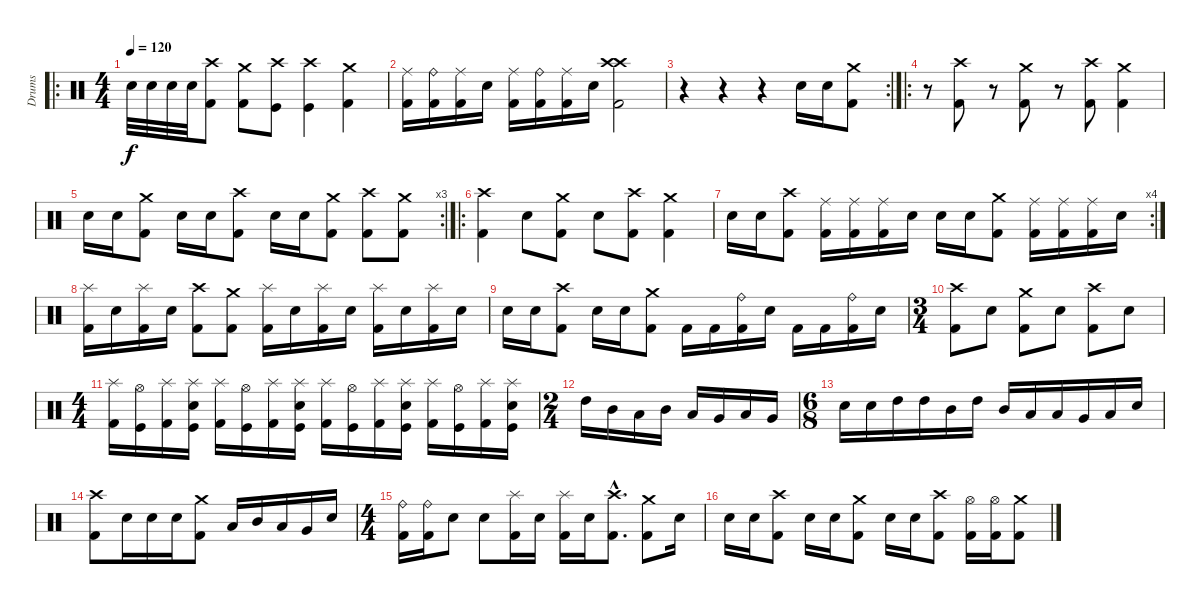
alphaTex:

\track ("Drums" "Drums") {instrument percussion}
\staff {score}
\articulation defaults
\ro
\ts (4 4)
\tempo 120
\clef neutral
\ks c "Electric Snare (hit)".32{dy f} "Electric Snare (hit)".32 "Electric Snare (hit)".32 "Electric Snare (hit)".32
("Crash high (hit)" "Kick (hit) 2").8 ("Crash medium (hit)" "Kick (hit) 2").8 ("Crash high (hit)" "Kick (hit)").8 ("Crash high (hit)" "Kick (hit)").4 ("Crash medium (hit)" "Kick (hit) 2").4 |
("Ride (middle)" "Kick (hit) 2").16 ("Ride (bell)" "Kick (hit) 2").16 ("Ride (middle)" "Kick (hit) 2").16 "Electric Snare (hit)".16 ("Ride (middle)" "Kick (hit) 2").16 ("Ride (bell)" "Kick (hit) 2").16 ("Ride (middle)" "Kick (hit) 2").16 "Electric Snare (hit)".16 ("Crash high (hit)" "Crash high (hit)" "Kick (hit) 2").2 |
\rc 2
r.4 r.4 r.4 "Snare (hit) 2".16 "Snare (hit) 2".16 ("Crash medium (hit)" "Kick (hit) 2").8 |
\ro
r.8 ("Crash high (hit)" "Kick (hit) 2").8 r.8 ("Crash medium (hit)" "Kick (hit) 2").8 r.8 ("Crash high (hit)" "Kick (hit) 2").8 ("Crash medium (hit)" "Kick (hit) 2").4 |
\rc 3 "Electric Snare (hit)".16 "Electric Snare (hit)".16
("Crash medium (hit)" "Kick (hit) 2").8 "Electric Snare (hit)".16 "Electric Snare (hit)".16 ("Crash high (hit)" "Kick (hit) 2").8 "Electric Snare (hit)".16 "Electric Snare (hit)".16 ("Crash medium (hit)" "Kick (hit) 2").8 ("Crash high (hit)" "Kick (hit) 2").8 ("Crash medium (hit)" "Kick (hit) 2").8 |
\ro
("Crash high (hit)" "Kick (hit) 2").4 "Electric Snare (hit)".8 ("Crash medium (hit)" "Kick (hit) 2").8 "Electric Snare (hit)".8 ("Crash high (hit)" "Kick (hit) 2").8 ("Crash medium (hit)" "Kick (hit) 2").4 |
\rc 4 "Electric Snare (hit)".16 "Electric Snare (hit)".16
("Crash high (hit)" "Kick (hit) 2").8 ("Ride (middle)" "Kick (hit) 2").16 ("Ride (middle)" "Kick (hit) 2").16 ("Ride (middle)" "Kick (hit) 2").16 "Electric Snare (hit)".16 "Electric Snare (hit)".16 "Electric Snare (hit)".16 ("Crash medium (hit)" "Kick (hit) 2").8 ("Ride (middle)" "Kick (hit) 2").16 ("Ride (middle)" "Kick (hit) 2").16 ("Ride (middle)" "Kick (hit) 2").16 "Electric Snare (hit)".16 |
("Splash (hit)" "Kick (hit) 2").16 "Electric Snare (hit)".16 ("Splash (hit)" "Kick (hit) 2").16 "Electric Snare (hit)".16 ("Crash high (hit)" "Kick (hit) 2").8 ("Crash medium (hit)" "Kick (hit) 2").8 ("Splash (hit)" "Kick (hit) 2").16 "Electric Snare (hit)".16 ("Splash (hit)" "Kick (hit) 2").16 "Electric Snare (hit)".16 ("Splash (hit)" "Kick (hit) 2").16 "Electric Snare (hit)".16 ("Splash (hit)" "Kick (hit) 2").16 "Electric Snare (hit)".16 |
"Electric Snare (hit)".16 "Electric Snare (hit)".16 ("Crash high (hit)" "Kick (hit) 2").8 "Electric Snare (hit)".16 "Electric Snare (hit)".16 ("Crash medium (hit)" "Kick (hit) 2").8 "Kick (hit) 2".16 "Kick (hit) 2".16 ("Ride (bell)" "Kick (hit) 2").16 "Electric Snare (hit)".16 "Kick (hit) 2".16 "Kick (hit) 2".16 ("Ride (bell)" "Kick (hit) 2").16 "Electric Snare (hit)".16 |
\ts (3 4)
("Crash high (hit)" "Kick (hit) 2").8 "Electric Snare (hit)".8 ("Crash medium (hit)" "Kick (hit) 2").8 "Electric Snare (hit)".8 ("Crash high (hit)" "Kick (hit) 2").8 "Electric Snare (hit)".8 |
\ts (4 4)
("Splash (hit)" "Kick (hit) 2").16 ("Hi-Hat (open)" "Kick (hit)").16 ("Splash (hit)" "Kick (hit) 2").16 ("Splash (hit)" "Electric Snare (hit)" "Kick (hit)").16 ("Splash (hit)" "Kick (hit) 2").16 ("Hi-Hat (open)" "Kick (hit)").16 ("Splash (hit)" "Kick (hit) 2").16 ("Splash (hit)" "Electric Snare (hit)" "Kick (hit)").16 ("Splash (hit)" "Kick (hit) 2").16 ("Hi-Hat (open)" "Kick (hit)").16 ("Splash (hit)" "Kick (hit) 2").16 ("Splash (hit)" "Electric Snare (hit)" "Kick (hit)").16 ("Splash (hit)" "Kick (hit) 2").16 ("Hi-Hat (open)" "Kick (hit)").16 ("Splash (hit)" "Kick (hit) 2").16 ("Splash (hit)" "Electric Snare (hit)" "Kick (hit)").16 |
\ts (2 4)
"High Tom (hit)".16 "Mid Tom (hit)".16 "Low Tom (hit)".16 "Mid Tom (hit)".16 "Low Tom (hit)".16 "Very Low Tom (hit)".16 "Low Tom (hit)".16 "Very Low Tom (hit)".16 |
\ts (6 8)
"Electric Snare (hit)".16 "Electric Snare (hit)".16 "High Tom (hit)".16 "High Tom (hit)".16 "Mid Tom (hit)".16 "High Tom (hit)".16 "Mid Tom (hit)".16 "Low Tom (hit)".16 "Low Tom (hit)".16 "Very Low Tom (hit)".16 "Low Floor Tom (hit)".16 "Electric Snare (hit)".16 |
("Crash high (hit)" "Kick (hit) 2").8 "Electric Snare (hit)".16 "Electric Snare (hit)".16 "Electric Snare (hit)".16 ("Crash medium (hit)" "Kick (hit) 2").8 "Low Tom (hit)".16 "Mid Tom (hit)".16 "Low Tom (hit)".16 "Very Low Tom (hit)".16 "Electric Snare (hit)".16 |
\ts (4 4)
("Ride (bell)" "Kick (hit) 2").16 ("Ride (bell)" "Kick (hit) 2").16 "Electric Snare (hit)".8 "Electric Snare (hit)".8 ("Splash (hit)" "Kick (hit) 2").16 "Electric Snare (hit)".16 ("Splash (hit)" "Kick (hit) 2").16 "Electric Snare (hit)".16 ("Crash high (hit)"{hac} "Kick (hit) 2"{hac}).8{d} ("Crash medium (hit)" "Kick (hit) 2").8 "Electric Snare (hit)".16 |
"Electric Snare (hit)".16 "Electric Snare (hit)".16 ("Crash high (hit)" "Kick (hit) 2").8 "Electric Snare (hit)".16 "Electric Snare (hit)".16 ("Crash medium (hit)" "Kick (hit) 2").8 "Electric Snare (hit)".16 "Electric Snare (hit)".16 ("Crash high (hit)" "Kick (hit) 2").8 ("Hi-Hat (open)" "Kick (hit) 2").16 ("Hi-Hat (open)" "Kick (hit) 2").16 ("Crash medium (hit)" "Kick (hit) 2").8
